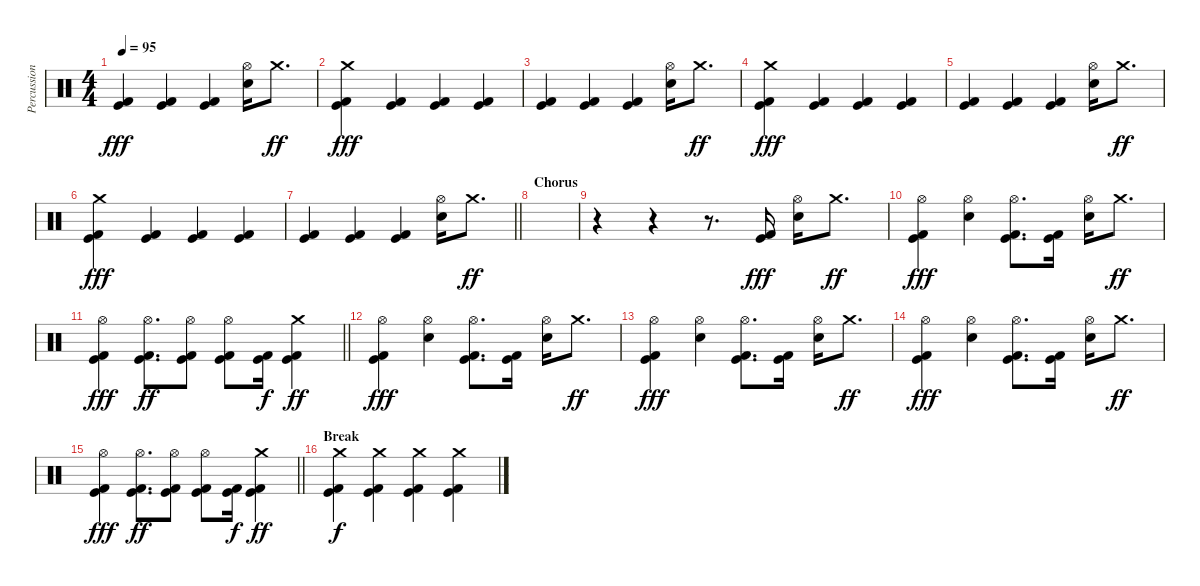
\track ("Percussion" "Percussion") {instrument percussion}
\staff {score}
\articulation defaults
\ts (4 4)
\tempo 95
\clef neutral
\ks c
("Kick (hit)" "Kick (hit) 2").4{dy fff} ("Kick (hit)" "Kick (hit) 2").4 ("Kick (hit)" "Kick (hit) 2").4 ("Hi-Hat (open)" "Snare (hit) 2").16 "Crash medium (hit)".8{d dy ff} |
("Crash medium (hit)" "Kick (hit)" "Kick (hit) 2").4{dy fff} ("Kick (hit)" "Kick (hit) 2").4 ("Kick (hit)" "Kick (hit) 2").4 ("Kick (hit)" "Kick (hit) 2").4 |
("Kick (hit)" "Kick (hit) 2").4 ("Kick (hit)" "Kick (hit) 2").4 ("Kick (hit)" "Kick (hit) 2").4 ("Hi-Hat (open)" "Snare (hit) 2").16 "Crash medium (hit)".8{d dy ff} |
("Crash medium (hit)" "Kick (hit)" "Kick (hit) 2").4{dy fff} ("Kick (hit)" "Kick (hit) 2").4 ("Kick (hit)" "Kick (hit) 2").4 ("Kick (hit)" "Kick (hit) 2").4 |
("Kick (hit)" "Kick (hit) 2").4 ("Kick (hit)" "Kick (hit) 2").4 ("Kick (hit)" "Kick (hit) 2").4 ("Hi-Hat (open)" "Snare (hit) 2").16 "Crash medium (hit)".8{d dy ff} |
("Crash medium (hit)" "Kick (hit)" "Kick (hit) 2").4{dy fff} ("Kick (hit)" "Kick (hit) 2").4 ("Kick (hit)" "Kick (hit) 2").4 ("Kick (hit)" "Kick (hit) 2").4 |
\barLineRight lightlight
("Kick (hit)" "Kick (hit) 2").4 ("Kick (hit)" "Kick (hit) 2").4 ("Kick (hit)" "Kick (hit) 2").4 ("Hi-Hat (open)" "Snare (hit) 2").16 "Crash medium (hit)".8{d dy ff} |
\section ("" "Chorus")
|
r.4 r.4 r.8{d} ("Kick (hit)" "Kick (hit) 2").16{dy fff} ("Hi-Hat (open)" "Snare (hit) 2").16 "Crash medium (hit)".8{d dy ff} |
("Hi-Hat (open)" "Kick (hit)" "Kick (hit) 2").4{dy fff} ("Hi-Hat (open)" "Snare (hit) 2").4 ("Hi-Hat (open)" "Kick (hit)" "Kick (hit) 2").8{d} ("Kick (hit)" "Kick (hit) 2").16 ("Hi-Hat (open)" "Snare (hit) 2").16 "Crash medium (hit)".8{d dy ff} |
\barLineRight lightlight
("Hi-Hat (open)" "Kick (hit)" "Kick (hit) 2").4{dy fff} ("Hi-Hat (open)" "Kick (hit)" "Kick (hit) 2").8{d dy ff} ("Hi-Hat (open)" "Kick (hit)" "Kick (hit) 2").8 ("Hi-Hat (open)" "Kick (hit)" "Kick (hit) 2").8 ("Kick (hit)" "Kick (hit) 2").16{dy f} ("Crash medium (hit)" "Kick (hit)" "Kick (hit) 2").4{dy ff} |
("Hi-Hat (open)" "Kick (hit)" "Kick (hit) 2").4{dy fff} ("Hi-Hat (open)" "Snare (hit) 2").4 ("Hi-Hat (open)" "Kick (hit)" "Kick (hit) 2").8{d} ("Kick (hit)" "Kick (hit) 2").16 ("Hi-Hat (open)" "Snare (hit) 2").16 "Crash medium (hit)".8{d dy ff} |
("Hi-Hat (open)" "Kick (hit)" "Kick (hit) 2").4{dy fff} ("Hi-Hat (open)" "Snare (hit) 2").4 ("Hi-Hat (open)" "Kick (hit)" "Kick (hit) 2").8{d} ("Kick (hit)" "Kick (hit) 2").16 ("Hi-Hat (open)" "Snare (hit) 2").16 "Crash medium (hit)".8{d dy ff} |
("Hi-Hat (open)" "Kick (hit)" "Kick (hit) 2").4{dy fff} ("Hi-Hat (open)" "Snare (hit) 2").4 ("Hi-Hat (open)" "Kick (hit)" "Kick (hit) 2").8{d} ("Kick (hit)" "Kick (hit) 2").16 ("Hi-Hat (open)" "Snare (hit) 2").16 "Crash medium (hit)".8{d dy ff} |
\barLineRight lightlight
("Hi-Hat (open)" "Kick (hit)" "Kick (hit) 2").4{dy fff} ("Hi-Hat (open)" "Kick (hit)" "Kick (hit) 2").8{d dy ff} ("Hi-Hat (open)" "Kick (hit)" "Kick (hit) 2").8 ("Hi-Hat (open)" "Kick (hit)" "Kick (hit) 2").8 ("Kick (hit)" "Kick (hit) 2").16{dy f} ("Crash medium (hit)" "Kick (hit)" "Kick (hit) 2").4{dy ff} |
\section ("" "Break")
("Crash medium (hit)" "Kick (hit)" "Kick (hit) 2").4{dy f} ("Crash medium (hit)" "Kick (hit)" "Kick (hit) 2").4 ("Crash medium (hit)" "Kick (hit)" "Kick (hit) 2").4 ("Crash medium (hit)" "Kick (hit)" "Kick (hit) 2").4
